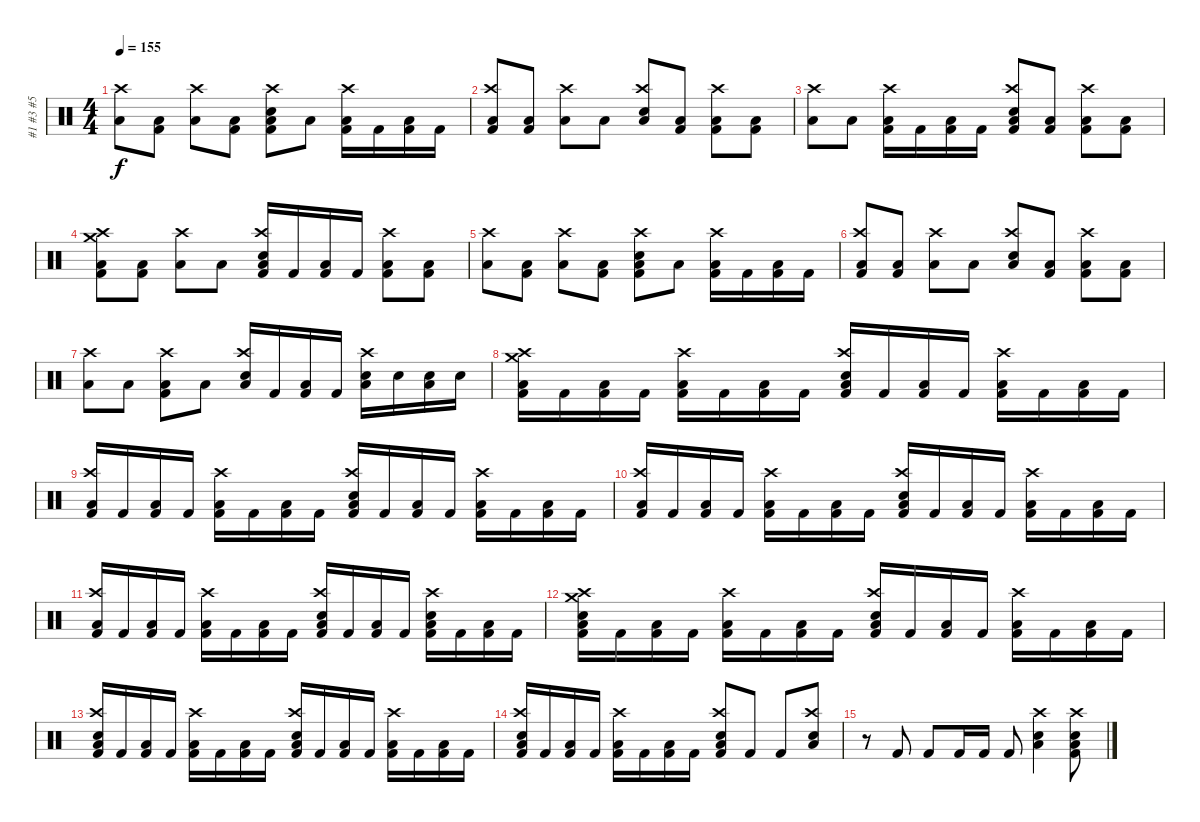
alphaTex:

\track ("#1 #3 #5" "#1 #3 #5") {instrument percussion}
\staff {score}
\articulation defaults
\ts (4 4)
\tempo 155
\clef neutral
\ks c
("Low Tom (hit)" "Crash high (hit)").8{dy f} ("Low Floor Tom (hit)" "Kick (hit) 2").8 ("Low Floor Tom (hit)" "Crash high (hit)").8 ("Low Floor Tom (hit)" "Kick (hit) 2").8 ("Low Tom (hit)" "Crash high (hit)" "Electric Snare (hit)" "Kick (hit) 2").8 "Low Floor Tom (hit)".8 ("Low Floor Tom (hit)" "Crash high (hit)" "Kick (hit) 2").16 "Kick (hit) 2".16 ("Low Floor Tom (hit)" "Kick (hit) 2").16 "Kick (hit) 2".16 |
("Low Tom (hit)" "Crash high (hit)" "Kick (hit) 2").8 ("Low Floor Tom (hit)" "Kick (hit) 2").8 ("Low Floor Tom (hit)" "Crash high (hit)").8 "Low Floor Tom (hit)".8 ("Low Tom (hit)" "Crash high (hit)" "Electric Snare (hit)").8 ("Low Floor Tom (hit)" "Kick (hit) 2").8 ("Low Floor Tom (hit)" "Crash high (hit)" "Kick (hit) 2").8 ("Low Floor Tom (hit)" "Kick (hit) 2").8 |
("Low Tom (hit)" "Crash high (hit)").8 "Low Floor Tom (hit)".8 ("Low Floor Tom (hit)" "Crash high (hit)" "Kick (hit) 2").16 "Kick (hit) 2".16 ("Low Floor Tom (hit)" "Kick (hit) 2").16 "Kick (hit) 2".16 ("Low Tom (hit)" "Crash high (hit)" "Electric Snare (hit)" "Kick (hit) 2").8 ("Low Floor Tom (hit)" "Kick (hit) 2").8 ("Low Floor Tom (hit)" "Crash high (hit)" "Kick (hit) 2").8 ("Low Floor Tom (hit)" "Kick (hit) 2").8 |
("Low Tom (hit)" "Crash high (hit)" "Crash medium (hit)" "Kick (hit) 2").8 ("Low Floor Tom (hit)" "Kick (hit) 2").8 ("Low Floor Tom (hit)" "Crash high (hit)").8 "Low Floor Tom (hit)".8 ("Low Tom (hit)" "Crash high (hit)" "Electric Snare (hit)" "Kick (hit) 2").16 "Kick (hit) 2".16 ("Low Floor Tom (hit)" "Kick (hit) 2").16 "Kick (hit) 2".16 ("Low Floor Tom (hit)" "Crash high (hit)" "Kick (hit) 2").8 ("Low Floor Tom (hit)" "Kick (hit) 2").8 |
("Low Tom (hit)" "Crash high (hit)").8 ("Low Floor Tom (hit)" "Kick (hit) 2").8 ("Low Floor Tom (hit)" "Crash high (hit)").8 ("Low Floor Tom (hit)" "Kick (hit) 2").8 ("Low Tom (hit)" "Crash high (hit)" "Electric Snare (hit)" "Kick (hit) 2").8 "Low Floor Tom (hit)".8 ("Low Floor Tom (hit)" "Crash high (hit)" "Kick (hit) 2").16 "Kick (hit) 2".16 ("Low Floor Tom (hit)" "Kick (hit) 2").16 "Kick (hit) 2".16 |
("Low Tom (hit)" "Crash high (hit)" "Kick (hit) 2").8 ("Low Floor Tom (hit)" "Kick (hit) 2").8 ("Low Floor Tom (hit)" "Crash high (hit)").8 "Low Floor Tom (hit)".8 ("Low Tom (hit)" "Crash high (hit)" "Electric Snare (hit)").8 ("Low Floor Tom (hit)" "Kick (hit) 2").8 ("Low Floor Tom (hit)" "Crash high (hit)" "Kick (hit) 2").8 ("Low Floor Tom (hit)" "Kick (hit) 2").8 |
("Low Tom (hit)" "Crash high (hit)").8 "Low Floor Tom (hit)".8 ("Low Floor Tom (hit)" "Crash high (hit)" "Kick (hit) 2").8 "Low Floor Tom (hit)".8 ("Low Tom (hit)" "Crash high (hit)" "Electric Snare (hit)").16 "Kick (hit) 2".16 ("Low Floor Tom (hit)" "Kick (hit) 2").16 "Kick (hit) 2".16 ("Low Floor Tom (hit)" "Crash high (hit)" "Electric Snare (hit)").16 "Electric Snare (hit)".16 ("Low Floor Tom (hit)" "Electric Snare (hit)").16 "Electric Snare (hit)".16 |
("Low Tom (hit)" "Crash high (hit)" "Crash medium (hit)" "Kick (hit) 2").16 "Kick (hit) 2".16 ("Low Floor Tom (hit)" "Kick (hit) 2").16 "Kick (hit) 2".16 ("Low Floor Tom (hit)" "Crash high (hit)" "Kick (hit) 2").16 "Kick (hit) 2".16 ("Low Floor Tom (hit)" "Kick (hit) 2").16 "Kick (hit) 2".16 ("Low Tom (hit)" "Crash high (hit)" "Electric Snare (hit)" "Kick (hit) 2").16 "Kick (hit) 2".16 ("Low Floor Tom (hit)" "Kick (hit) 2").16 "Kick (hit) 2".16 ("Low Floor Tom (hit)" "Crash high (hit)" "Kick (hit) 2").16 "Kick (hit) 2".16 ("Low Floor Tom (hit)" "Kick (hit) 2").16 "Kick (hit) 2".16 |
("Low Tom (hit)" "Crash high (hit)" "Kick (hit) 2").16 "Kick (hit) 2".16 ("Low Floor Tom (hit)" "Kick (hit) 2").16 "Kick (hit) 2".16 ("Low Floor Tom (hit)" "Crash high (hit)" "Kick (hit) 2").16 "Kick (hit) 2".16 ("Low Floor Tom (hit)" "Kick (hit) 2").16 "Kick (hit) 2".16 ("Low Tom (hit)" "Crash high (hit)" "Electric Snare (hit)" "Kick (hit) 2").16 "Kick (hit) 2".16 ("Low Floor Tom (hit)" "Kick (hit) 2").16 "Kick (hit) 2".16 ("Low Floor Tom (hit)" "Crash high (hit)" "Kick (hit) 2").16 "Kick (hit) 2".16 ("Low Floor Tom (hit)" "Kick (hit) 2").16 "Kick (hit) 2".16 |
("Low Tom (hit)" "Crash high (hit)" "Kick (hit) 2").16 "Kick (hit) 2".16 ("Low Floor Tom (hit)" "Kick (hit) 2").16 "Kick (hit) 2".16 ("Low Floor Tom (hit)" "Crash high (hit)" "Kick (hit) 2").16 "Kick (hit) 2".16 ("Low Floor Tom (hit)" "Kick (hit) 2").16 "Kick (hit) 2".16 ("Low Tom (hit)" "Crash high (hit)" "Electric Snare (hit)" "Kick (hit) 2").16 "Kick (hit) 2".16 ("Low Floor Tom (hit)" "Kick (hit) 2").16 "Kick (hit) 2".16 ("Low Floor Tom (hit)" "Crash high (hit)" "Kick (hit) 2").16 "Kick (hit) 2".16 ("Low Floor Tom (hit)" "Kick (hit) 2").16 "Kick (hit) 2".16 |
("Low Tom (hit)" "Crash high (hit)" "Kick (hit) 2").16 "Kick (hit) 2".16 ("Low Floor Tom (hit)" "Kick (hit) 2").16 "Kick (hit) 2".16 ("Low Floor Tom (hit)" "Crash high (hit)" "Kick (hit) 2").16 "Kick (hit) 2".16 ("Low Floor Tom (hit)" "Kick (hit) 2").16 "Kick (hit) 2".16 ("Low Tom (hit)" "Crash high (hit)" "Electric Snare (hit)" "Kick (hit) 2").16 "Kick (hit) 2".16 ("Low Floor Tom (hit)" "Kick (hit) 2").16 "Kick (hit) 2".16 ("Low Floor Tom (hit)" "Crash high (hit)" "Electric Snare (hit)" "Kick (hit) 2").16 "Kick (hit) 2".16 ("Low Floor Tom (hit)" "Kick (hit) 2").16 "Kick (hit) 2".16 |
("Low Tom (hit)" "Crash medium (hit)" "Crash high (hit)" "Electric Snare (hit)" "Kick (hit) 2").16 "Kick (hit) 2".16 ("Low Floor Tom (hit)" "Kick (hit) 2").16 "Kick (hit) 2".16 ("Low Floor Tom (hit)" "Crash high (hit)" "Kick (hit) 2").16 "Kick (hit) 2".16 ("Low Floor Tom (hit)" "Kick (hit) 2").16 "Kick (hit) 2".16 ("Low Tom (hit)" "Crash high (hit)" "Electric Snare (hit)" "Kick (hit) 2").16 "Kick (hit) 2".16 ("Low Floor Tom (hit)" "Kick (hit) 2").16 "Kick (hit) 2".16 ("Low Floor Tom (hit)" "Crash high (hit)" "Kick (hit) 2").16 "Kick (hit) 2".16 ("Low Floor Tom (hit)" "Kick (hit) 2").16 "Kick (hit) 2".16 |
("Low Tom (hit)" "Crash high (hit)" "Electric Snare (hit)" "Kick (hit) 2").16 "Kick (hit) 2".16 ("Low Floor Tom (hit)" "Kick (hit) 2").16 "Kick (hit) 2".16 ("Low Floor Tom (hit)" "Crash high (hit)" "Kick (hit) 2").16 "Kick (hit) 2".16 ("Low Floor Tom (hit)" "Kick (hit) 2").16 "Kick (hit) 2".16 ("Low Tom (hit)" "Crash high (hit)" "Electric Snare (hit)" "Kick (hit) 2").16 "Kick (hit) 2".16 ("Low Floor Tom (hit)" "Kick (hit) 2").16 "Kick (hit) 2".16 ("Low Floor Tom (hit)" "Crash high (hit)" "Kick (hit) 2").16 "Kick (hit) 2".16 ("Low Floor Tom (hit)" "Kick (hit) 2").16 "Kick (hit) 2".16 |
("Low Tom (hit)" "Crash high (hit)" "Electric Snare (hit)" "Kick (hit) 2").16 "Kick (hit) 2".16 ("Low Floor Tom (hit)" "Kick (hit) 2").16 "Kick (hit) 2".16 ("Low Floor Tom (hit)" "Crash high (hit)" "Kick (hit) 2").16 "Kick (hit) 2".16 ("Low Floor Tom (hit)" "Kick (hit) 2").16 "Kick (hit) 2".16 ("Low Tom (hit)" "Crash high (hit)" "Electric Snare (hit)" "Kick (hit) 2").8 "Kick (hit) 2".8 "Kick (hit) 2".8 ("Low Tom (hit)" "Crash high (hit)" "Electric Snare (hit)").8 |
r.8 "Kick (hit) 2".8 "Kick (hit) 2".8 "Kick (hit) 2".16 "Kick (hit) 2".16 "Kick (hit) 2".8 ("Low Tom (hit)" "Crash high (hit)" "Electric Snare (hit)").4 ("Low Tom (hit)" "Crash high (hit)" "Electric Snare (hit)" "Kick (hit) 2").8
